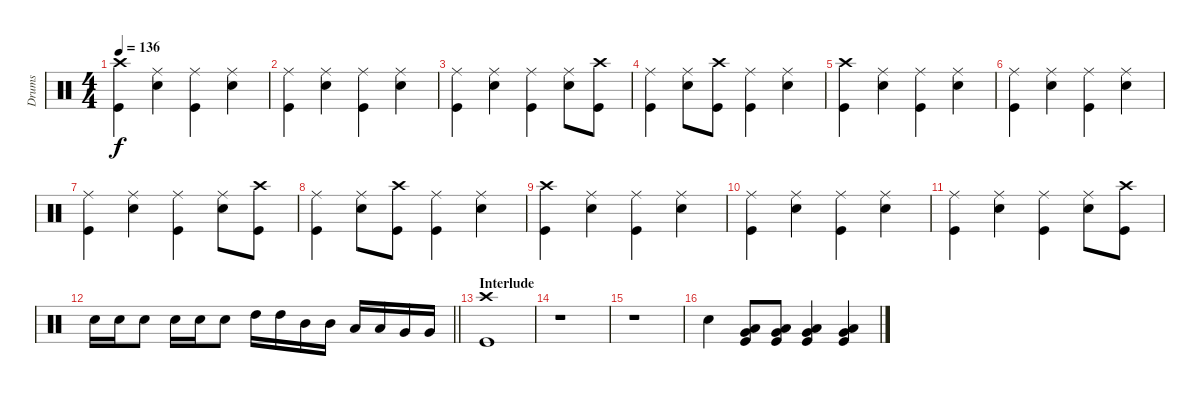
\track ("Drums" "Drums") {instrument percussion}
\staff {score}
\articulation defaults
\ts (4 4)
\tempo 136
\clef neutral
\ks c
("Crash high (hit)" "Kick (hit)").4{dy f} ("Ride (middle)" "Snare (hit) 2").4 ("Ride (middle)" "Kick (hit)").4 ("Ride (middle)" "Snare (hit) 2").4 |
("Ride (middle)" "Kick (hit)").4 ("Ride (middle)" "Snare (hit) 2").4 ("Ride (middle)" "Kick (hit)").4 ("Ride (middle)" "Snare (hit) 2").4 |
("Ride (middle)" "Kick (hit)").4 ("Ride (middle)" "Snare (hit) 2").4 ("Ride (middle)" "Kick (hit)").4 ("Ride (middle)" "Snare (hit) 2").8 ("Crash high (hit)" "Kick (hit)").8 |
("Ride (middle)" "Kick (hit)").4 ("Ride (middle)" "Snare (hit) 2").8 ("Crash high (hit)" "Kick (hit)").8 ("Ride (middle)" "Kick (hit)").4 ("Ride (middle)" "Snare (hit) 2").4 |
("Crash high (hit)" "Kick (hit)").4 ("Ride (middle)" "Snare (hit) 2").4 ("Ride (middle)" "Kick (hit)").4 ("Ride (middle)" "Snare (hit) 2").4 |
("Ride (middle)" "Kick (hit)").4 ("Ride (middle)" "Snare (hit) 2").4 ("Ride (middle)" "Kick (hit)").4 ("Ride (middle)" "Snare (hit) 2").4 |
("Ride (middle)" "Kick (hit)").4 ("Ride (middle)" "Snare (hit) 2").4 ("Ride (middle)" "Kick (hit)").4 ("Ride (middle)" "Snare (hit) 2").8 ("Crash high (hit)" "Kick (hit)").8 |
("Ride (middle)" "Kick (hit)").4 ("Ride (middle)" "Snare (hit) 2").8 ("Crash high (hit)" "Kick (hit)").8 ("Ride (middle)" "Kick (hit)").4 ("Ride (middle)" "Snare (hit) 2").4 |
("Crash high (hit)" "Kick (hit)").4 ("Ride (middle)" "Snare (hit) 2").4 ("Ride (middle)" "Kick (hit)").4 ("Ride (middle)" "Snare (hit) 2").4 |
("Ride (middle)" "Kick (hit)").4 ("Ride (middle)" "Snare (hit) 2").4 ("Ride (middle)" "Kick (hit)").4 ("Ride (middle)" "Snare (hit) 2").4 |
("Ride (middle)" "Kick (hit)").4 ("Ride (middle)" "Snare (hit) 2").4 ("Ride (middle)" "Kick (hit)").4 ("Ride (middle)" "Snare (hit) 2").8 ("Crash high (hit)" "Kick (hit)").8 |
\barLineRight lightlight "Snare (hit) 2".16 "Snare (hit) 2".16 "Snare (hit) 2".8 "Snare (hit) 2".16 "Snare (hit) 2".16 "Snare (hit) 2".8 "High Tom (hit)".16 "High Tom (hit)".16 "Mid Tom (hit)".16 "Mid Tom (hit)".16 "Low Tom (hit)".16 "Low Tom (hit)".16 "Very Low Tom (hit)".16 "Very Low Tom (hit)".16
|
\section ("" "Interlude")
("Crash high (hit)" "Kick (hit)").1 |
r.1 |
r.1 |
"Snare (hit) 2".4 ("Very Low Tom (hit)" "Low Floor Tom (hit)" "Kick (hit)").8 ("Very Low Tom (hit)" "Low Floor Tom (hit)" "Kick (hit)").8 ("Very Low Tom (hit)" "Low Floor Tom (hit)" "Kick (hit)").4 ("Very Low Tom (hit)" "Low Floor Tom (hit)" "Kick (hit)").4
